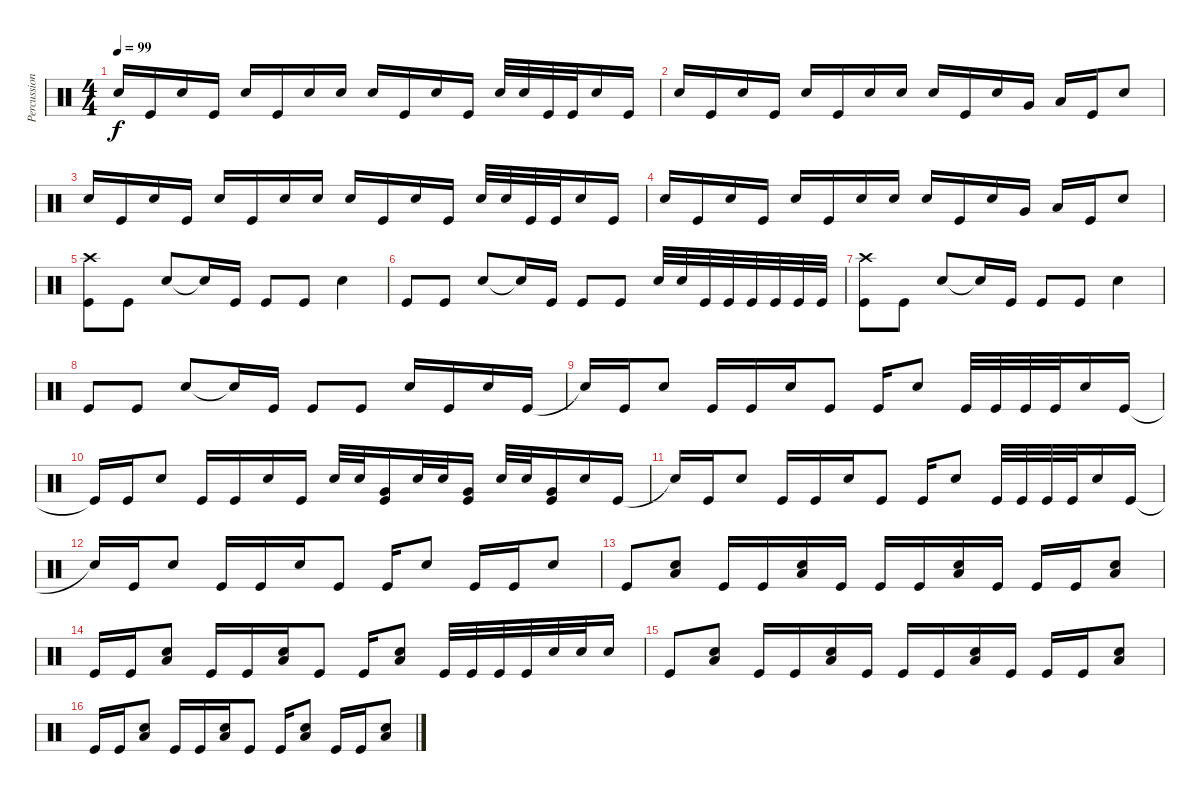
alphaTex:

\track ("Percussion" "Percussion") {instrument percussion}
\staff {score}
\articulation defaults
\ts (4 4)
\tempo 99
\clef neutral
\ks c "Electric Snare (hit)".16{dy f} "Kick (hit)".16 "Electric Snare (hit)".16 "Kick (hit)".16 "Electric Snare (hit)".16 "Kick (hit)".16 "Electric Snare (hit)".16 "Electric Snare (hit)".16 "Electric Snare (hit)".16 "Kick (hit)".16 "Electric Snare (hit)".16 "Kick (hit)".16 "Electric Snare (hit)".32 "Electric Snare (hit)".32 "Kick (hit)".32 "Kick (hit)".32 "Electric Snare (hit)".16 "Kick (hit)".16
|
"Electric Snare (hit)".16 "Kick (hit)".16 "Electric Snare (hit)".16 "Kick (hit)".16 "Electric Snare (hit)".16 "Kick (hit)".16 "Electric Snare (hit)".16 "Electric Snare (hit)".16 "Electric Snare (hit)".16 "Kick (hit)".16 "Electric Snare (hit)".16 "Very Low Tom (hit)".16 "Low Floor Tom (hit)".16 "Kick (hit)".16 "Electric Snare (hit)".8 |
"Electric Snare (hit)".16 "Kick (hit)".16 "Electric Snare (hit)".16 "Kick (hit)".16 "Electric Snare (hit)".16 "Kick (hit)".16 "Electric Snare (hit)".16 "Electric Snare (hit)".16 "Electric Snare (hit)".16 "Kick (hit)".16 "Electric Snare (hit)".16 "Kick (hit)".16 "Electric Snare (hit)".32 "Electric Snare (hit)".32 "Kick (hit)".32 "Kick (hit)".32 "Electric Snare (hit)".16 "Kick (hit)".16 |
"Electric Snare (hit)".16 "Kick (hit)".16 "Electric Snare (hit)".16 "Kick (hit)".16 "Electric Snare (hit)".16 "Kick (hit)".16 "Electric Snare (hit)".16 "Electric Snare (hit)".16 "Electric Snare (hit)".16 "Kick (hit)".16 "Electric Snare (hit)".16 "Very Low Tom (hit)".16 "Low Floor Tom (hit)".16 "Kick (hit)".16 "Electric Snare (hit)".8 |
("Crash high (hit)" "Kick (hit)").8 "Kick (hit)".8 "Electric Snare (hit)".8 "Snare (hit)"{t}.16 "Kick (hit)".16 "Kick (hit)".8 "Kick (hit)".8 "Electric Snare (hit)".4 |
"Kick (hit)".8 "Kick (hit)".8 "Electric Snare (hit)".8 "Snare (hit)"{t}.16 "Kick (hit)".16 "Kick (hit)".8 "Kick (hit)".8 "Electric Snare (hit)".32 "Electric Snare (hit)".32 "Kick (hit)".32 "Kick (hit)".32 "Kick (hit)".32 "Kick (hit)".32 "Kick (hit)".32 "Kick (hit)".32 |
("Crash high (hit)" "Kick (hit)").8 "Kick (hit)".8 "Electric Snare (hit)".8 "Snare (hit)"{t}.16 "Kick (hit)".16 "Kick (hit)".8 "Kick (hit)".8 "Electric Snare (hit)".4 |
"Kick (hit)".8 "Kick (hit)".8 "Electric Snare (hit)".8 "Snare (hit)"{t}.16 "Kick (hit)".16 "Kick (hit)".8 "Kick (hit)".8 "Electric Snare (hit)".16 "Kick (hit)".16 "Electric Snare (hit)".16 "Kick (hit)".16 |
"Snare (hit)"{t}.16 "Kick (hit)".16 "Electric Snare (hit)".8 "Kick (hit)".16 "Kick (hit)".16 "Electric Snare (hit)".16 "Kick (hit)".8 "Kick (hit)".16 "Electric Snare (hit)".8 "Kick (hit)".32 "Kick (hit)".32 "Kick (hit)".32 "Kick (hit)".32 "Electric Snare (hit)".16 "Kick (hit)".16 |
"Kick (hit)"{t}.16 "Kick (hit)".16 "Electric Snare (hit)".8 "Kick (hit)".16 "Kick (hit)".16 "Electric Snare (hit)".16 "Kick (hit)".16 "Electric Snare (hit)".32 "Electric Snare (hit)".32 ("Very Low Tom (hit)" "Kick (hit)").16 "Electric Snare (hit)".32 "Electric Snare (hit)".32 ("Very Low Tom (hit)" "Kick (hit)").16 "Electric Snare (hit)".32 "Electric Snare (hit)".32 ("Very Low Tom (hit)" "Kick (hit)").16 "Electric Snare (hit)".16 "Kick (hit)".16 |
"Snare (hit)"{t}.16 "Kick (hit)".16 "Electric Snare (hit)".8 "Kick (hit)".16 "Kick (hit)".16 "Electric Snare (hit)".16 "Kick (hit)".8 "Kick (hit)".16 "Electric Snare (hit)".8 "Kick (hit)".32 "Kick (hit)".32 "Kick (hit)".32 "Kick (hit)".32 "Electric Snare (hit)".16 "Kick (hit)".16 |
"Snare (hit)"{t}.16 "Kick (hit)".16 "Electric Snare (hit)".8 "Kick (hit)".16 "Kick (hit)".16 "Electric Snare (hit)".16 "Kick (hit)".8 "Kick (hit)".16 "Electric Snare (hit)".8 "Kick (hit)".16 "Kick (hit)".16 "Electric Snare (hit)".8 |
"Kick (hit)".8 ("Electric Snare (hit)" "Low Floor Tom (hit)").8 "Kick (hit)".16 "Kick (hit)".16 ("Electric Snare (hit)" "Low Floor Tom (hit)").16 "Kick (hit)".16 "Kick (hit)".16 "Kick (hit)".16 ("Electric Snare (hit)" "Low Floor Tom (hit)").16 "Kick (hit)".16 "Kick (hit)".16 "Kick (hit)".16 ("Electric Snare (hit)" "Low Floor Tom (hit)").8 |
"Kick (hit)".16 "Kick (hit)".16 ("Electric Snare (hit)" "Low Floor Tom (hit)").8 "Kick (hit)".16 "Kick (hit)".16 ("Electric Snare (hit)" "Low Floor Tom (hit)").16 "Kick (hit)".8 "Kick (hit)".16 ("Electric Snare (hit)" "Low Floor Tom (hit)").8 "Kick (hit)".32 "Kick (hit)".32 "Kick (hit)".32 "Kick (hit)".32 "Electric Snare (hit)".32 "Electric Snare (hit)".32 "Electric Snare (hit)".16 |
"Kick (hit)".8 ("Electric Snare (hit)" "Low Floor Tom (hit)").8 "Kick (hit)".16 "Kick (hit)".16 ("Electric Snare (hit)" "Low Floor Tom (hit)").16 "Kick (hit)".16 "Kick (hit)".16 "Kick (hit)".16 ("Electric Snare (hit)" "Low Floor Tom (hit)").16 "Kick (hit)".16 "Kick (hit)".16 "Kick (hit)".16 ("Electric Snare (hit)" "Low Floor Tom (hit)").8 |
"Kick (hit)".16 "Kick (hit)".16 ("Electric Snare (hit)" "Low Floor Tom (hit)").8 "Kick (hit)".16 "Kick (hit)".16 ("Electric Snare (hit)" "Low Floor Tom (hit)").16 "Kick (hit)".8 "Kick (hit)".16 ("Electric Snare (hit)" "Low Floor Tom (hit)").8 "Kick (hit)".16 "Kick (hit)".16 ("Electric Snare (hit)" "Low Floor Tom (hit)").8
